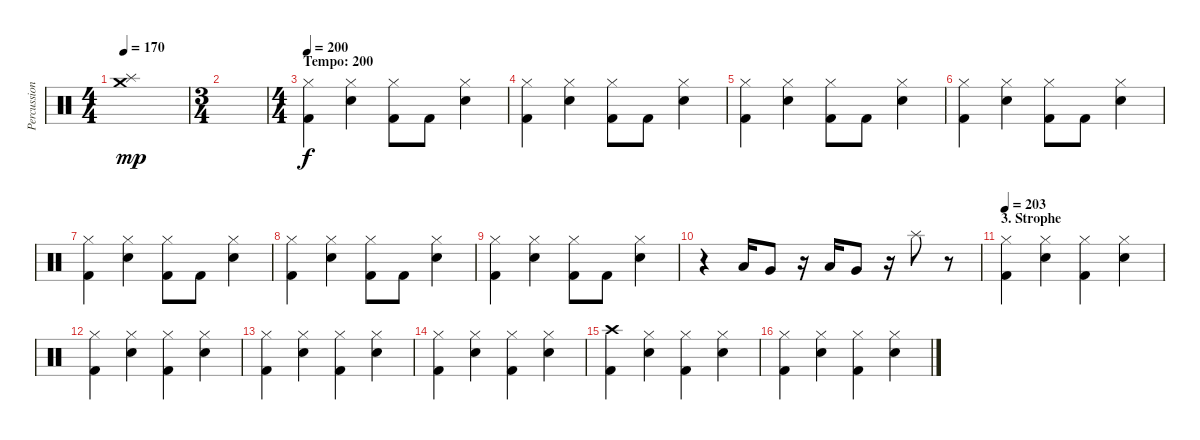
\track ("Percussion" "Percussion") {instrument percussion}
\staff {score}
\articulation defaults
\ts (4 4)
\tempo 170
\clef neutral
\ks c
("Crash medium (hit)" "Splash (hit)").1{dy mp} |
\ts (3 4)
|
\ts (4 4)
\section ("" "Tempo: 200")
\tempo 200
("Hi-Hat (closed)" "Kick (hit) 2").4{dy f volume 13} ("Hi-Hat (closed)" "Electric Snare (hit)").4 ("Hi-Hat (closed)" "Kick (hit) 2").8 "Kick (hit) 2".8 ("Hi-Hat (closed)" "Electric Snare (hit)").4 |
("Hi-Hat (closed)" "Kick (hit) 2").4 ("Hi-Hat (closed)" "Electric Snare (hit)").4 ("Hi-Hat (closed)" "Kick (hit) 2").8 "Kick (hit) 2".8 ("Hi-Hat (closed)" "Electric Snare (hit)").4 |
("Hi-Hat (closed)" "Kick (hit) 2").4 ("Hi-Hat (closed)" "Electric Snare (hit)").4 ("Hi-Hat (closed)" "Kick (hit) 2").8 "Kick (hit) 2".8 ("Hi-Hat (closed)" "Electric Snare (hit)").4 |
("Hi-Hat (closed)" "Kick (hit) 2").4 ("Hi-Hat (closed)" "Electric Snare (hit)").4 ("Hi-Hat (closed)" "Kick (hit) 2").8 "Kick (hit) 2".8 ("Hi-Hat (closed)" "Electric Snare (hit)").4 |
("Hi-Hat (closed)" "Kick (hit) 2").4 ("Hi-Hat (closed)" "Electric Snare (hit)").4 ("Hi-Hat (closed)" "Kick (hit) 2").8 "Kick (hit) 2".8 ("Hi-Hat (closed)" "Electric Snare (hit)").4 |
("Hi-Hat (closed)" "Kick (hit) 2").4 ("Hi-Hat (closed)" "Electric Snare (hit)").4 ("Hi-Hat (closed)" "Kick (hit) 2").8 "Kick (hit) 2".8 ("Hi-Hat (closed)" "Electric Snare (hit)").4 |
("Hi-Hat (closed)" "Kick (hit) 2").4 ("Hi-Hat (closed)" "Electric Snare (hit)").4 ("Hi-Hat (closed)" "Kick (hit) 2").8 "Kick (hit) 2".8 ("Hi-Hat (closed)" "Electric Snare (hit)").4 |
r.4 "Low Tom (hit)".16 "Very Low Tom (hit)".8 r.16 "Low Tom (hit)".16 "Very Low Tom (hit)".8 r.16 "Splash (hit)".8 r.8 |
\section ("" "3. Strophe")
\tempo 203
("Hi-Hat (closed)" "Kick (hit) 2").4{volume 11} ("Hi-Hat (closed)" "Electric Snare (hit)").4 ("Hi-Hat (closed)" "Kick (hit) 2").4 ("Hi-Hat (closed)" "Electric Snare (hit)").4 |
("Hi-Hat (closed)" "Kick (hit) 2").4 ("Hi-Hat (closed)" "Electric Snare (hit)").4 ("Hi-Hat (closed)" "Kick (hit) 2").4 ("Hi-Hat (closed)" "Electric Snare (hit)").4 |
("Hi-Hat (closed)" "Kick (hit) 2").4 ("Hi-Hat (closed)" "Electric Snare (hit)").4 ("Hi-Hat (closed)" "Kick (hit) 2").4 ("Hi-Hat (closed)" "Electric Snare (hit)").4 |
("Hi-Hat (closed)" "Kick (hit) 2").4 ("Hi-Hat (closed)" "Electric Snare (hit)").4 ("Hi-Hat (closed)" "Kick (hit) 2").4 ("Hi-Hat (closed)" "Electric Snare (hit)").4 |
("Crash high (hit)" "Kick (hit) 2").4 ("Hi-Hat (closed)" "Electric Snare (hit)").4 ("Hi-Hat (closed)" "Kick (hit) 2").4 ("Hi-Hat (closed)" "Electric Snare (hit)").4 |
("Hi-Hat (closed)" "Kick (hit) 2").4 ("Hi-Hat (closed)" "Electric Snare (hit)").4 ("Hi-Hat (closed)" "Kick (hit) 2").4 ("Hi-Hat (closed)" "Electric Snare (hit)").4
